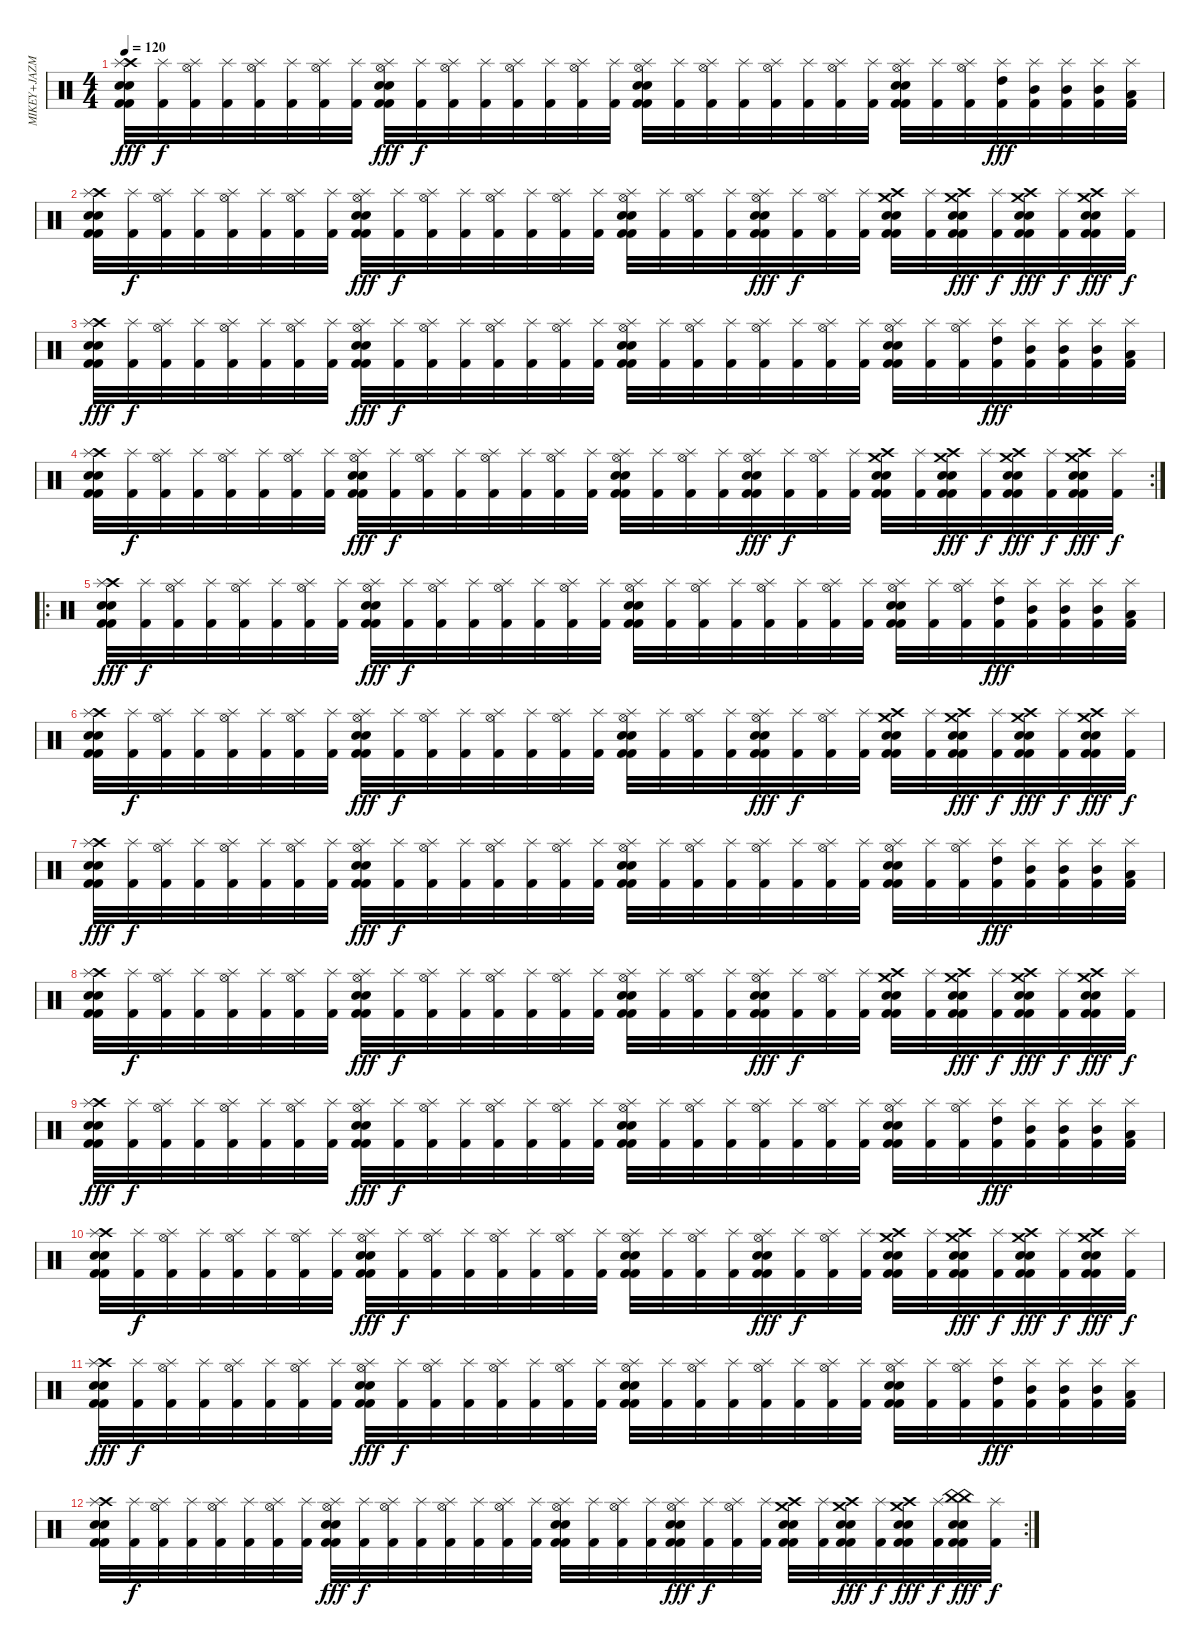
\track ("MIKEY+JAZMO" "MIKEY+JAZM") {instrument percussion}
\staff {score}
\articulation defaults
\ts (4 4)
\tempo 120
\clef neutral
\ks c
("Crash high (hit)" "Splash (hit)" "Electric Snare (hit)" "Electric Snare (hit)" "Kick (hit) 2" "Kick (hit) 2").32{dy fff} ("Splash (hit)" "Kick (hit) 2").32{dy f} ("Hi-Hat (open)" "Splash (hit)" "Kick (hit) 2").32 ("Splash (hit)" "Kick (hit) 2").32 ("Hi-Hat (open)" "Splash (hit)" "Kick (hit) 2").32 ("Splash (hit)" "Kick (hit) 2").32 ("Hi-Hat (open)" "Splash (hit)" "Kick (hit) 2").32 ("Splash (hit)" "Kick (hit) 2").32 ("Hi-Hat (open)" "Splash (hit)" "Electric Snare (hit)" "Electric Snare (hit)" "Kick (hit) 2" "Kick (hit) 2").32{dy fff} ("Splash (hit)" "Kick (hit) 2").32{dy f} ("Hi-Hat (open)" "Splash (hit)" "Kick (hit) 2").32 ("Splash (hit)" "Kick (hit) 2").32 ("Hi-Hat (open)" "Splash (hit)" "Kick (hit) 2").32 ("Splash (hit)" "Kick (hit) 2").32 ("Hi-Hat (open)" "Splash (hit)" "Kick (hit) 2").32 ("Splash (hit)" "Kick (hit) 2").32 ("Hi-Hat (open)" "Splash (hit)" "Electric Snare (hit)" "Electric Snare (hit)" "Kick (hit) 2" "Kick (hit) 2").32 ("Splash (hit)" "Kick (hit) 2").32 ("Hi-Hat (open)" "Splash (hit)" "Kick (hit) 2").32 ("Splash (hit)" "Kick (hit) 2").32 ("Hi-Hat (open)" "Splash (hit)" "Kick (hit) 2").32 ("Splash (hit)" "Kick (hit) 2").32 ("Hi-Hat (open)" "Splash (hit)" "Kick (hit) 2").32 ("Splash (hit)" "Kick (hit) 2").32 ("Hi-Hat (open)" "Splash (hit)" "Electric Snare (hit)" "Electric Snare (hit)" "Kick (hit) 2" "Kick (hit) 2").32 ("Splash (hit)" "Kick (hit) 2").32 ("Hi-Hat (open)" "Splash (hit)" "Kick (hit) 2").32 ("High Tom (hit)" "Splash (hit)" "Kick (hit) 2").32{dy fff} ("Mid Tom (hit)" "Splash (hit)" "Kick (hit) 2").32 ("Mid Tom (hit)" "Splash (hit)" "Kick (hit) 2").32 ("Mid Tom (hit)" "Splash (hit)" "Kick (hit) 2").32 ("Low Tom (hit)" "Splash (hit)" "Kick (hit) 2").32 |
("Crash high (hit)" "Splash (hit)" "Electric Snare (hit)" "Electric Snare (hit)" "Kick (hit) 2" "Kick (hit) 2").32 ("Splash (hit)" "Kick (hit) 2").32{dy f} ("Hi-Hat (open)" "Splash (hit)" "Kick (hit) 2").32 ("Splash (hit)" "Kick (hit) 2").32 ("Hi-Hat (open)" "Splash (hit)" "Kick (hit) 2").32 ("Splash (hit)" "Kick (hit) 2").32 ("Hi-Hat (open)" "Splash (hit)" "Kick (hit) 2").32 ("Splash (hit)" "Kick (hit) 2").32 ("Hi-Hat (open)" "Splash (hit)" "Electric Snare (hit)" "Electric Snare (hit)" "Kick (hit) 2" "Kick (hit) 2").32{dy fff} ("Splash (hit)" "Kick (hit) 2").32{dy f} ("Hi-Hat (open)" "Splash (hit)" "Kick (hit) 2").32 ("Splash (hit)" "Kick (hit) 2").32 ("Hi-Hat (open)" "Splash (hit)" "Kick (hit) 2").32 ("Splash (hit)" "Kick (hit) 2").32 ("Hi-Hat (open)" "Splash (hit)" "Kick (hit) 2").32 ("Splash (hit)" "Kick (hit) 2").32 ("Hi-Hat (open)" "Splash (hit)" "Electric Snare (hit)" "Electric Snare (hit)" "Kick (hit) 2" "Kick (hit) 2").32 ("Splash (hit)" "Kick (hit) 2").32 ("Hi-Hat (open)" "Splash (hit)" "Kick (hit) 2").32 ("Splash (hit)" "Kick (hit) 2").32 ("Hi-Hat (open)" "Splash (hit)" "Electric Snare (hit)" "Electric Snare (hit)" "Kick (hit) 2" "Kick (hit) 2").32{dy fff} ("Splash (hit)" "Kick (hit) 2").32{dy f} ("Hi-Hat (open)" "Splash (hit)" "Kick (hit) 2").32 ("Splash (hit)" "Kick (hit) 2").32 ("Crash medium (hit)" "Crash high (hit)" "Electric Snare (hit)" "Electric Snare (hit)" "Kick (hit) 2" "Kick (hit) 2").32 ("Splash (hit)" "Kick (hit) 2").32 ("Crash medium (hit)" "Crash high (hit)" "Electric Snare (hit)" "Electric Snare (hit)" "Kick (hit) 2" "Kick (hit) 2").32{dy fff} ("Splash (hit)" "Kick (hit) 2").32{dy f} ("Crash medium (hit)" "Crash high (hit)" "Electric Snare (hit)" "Electric Snare (hit)" "Kick (hit) 2" "Kick (hit) 2").32{dy fff} ("Splash (hit)" "Kick (hit) 2").32{dy f} ("Crash medium (hit)" "Crash high (hit)" "Electric Snare (hit)" "Electric Snare (hit)" "Kick (hit) 2" "Kick (hit) 2").32{dy fff} ("Splash (hit)" "Kick (hit) 2").32{dy f} |
("Crash high (hit)" "Splash (hit)" "Electric Snare (hit)" "Electric Snare (hit)" "Kick (hit) 2" "Kick (hit) 2").32{dy fff} ("Splash (hit)" "Kick (hit) 2").32{dy f} ("Hi-Hat (open)" "Splash (hit)" "Kick (hit) 2").32 ("Splash (hit)" "Kick (hit) 2").32 ("Hi-Hat (open)" "Splash (hit)" "Kick (hit) 2").32 ("Splash (hit)" "Kick (hit) 2").32 ("Hi-Hat (open)" "Splash (hit)" "Kick (hit) 2").32 ("Splash (hit)" "Kick (hit) 2").32 ("Hi-Hat (open)" "Splash (hit)" "Electric Snare (hit)" "Electric Snare (hit)" "Kick (hit) 2" "Kick (hit) 2").32{dy fff} ("Splash (hit)" "Kick (hit) 2").32{dy f} ("Hi-Hat (open)" "Splash (hit)" "Kick (hit) 2").32 ("Splash (hit)" "Kick (hit) 2").32 ("Hi-Hat (open)" "Splash (hit)" "Kick (hit) 2").32 ("Splash (hit)" "Kick (hit) 2").32 ("Hi-Hat (open)" "Splash (hit)" "Kick (hit) 2").32 ("Splash (hit)" "Kick (hit) 2").32 ("Hi-Hat (open)" "Splash (hit)" "Electric Snare (hit)" "Electric Snare (hit)" "Kick (hit) 2" "Kick (hit) 2").32 ("Splash (hit)" "Kick (hit) 2").32 ("Hi-Hat (open)" "Splash (hit)" "Kick (hit) 2").32 ("Splash (hit)" "Kick (hit) 2").32 ("Hi-Hat (open)" "Splash (hit)" "Kick (hit) 2").32 ("Splash (hit)" "Kick (hit) 2").32 ("Hi-Hat (open)" "Splash (hit)" "Kick (hit) 2").32 ("Splash (hit)" "Kick (hit) 2").32 ("Hi-Hat (open)" "Splash (hit)" "Electric Snare (hit)" "Electric Snare (hit)" "Kick (hit) 2" "Kick (hit) 2").32 ("Splash (hit)" "Kick (hit) 2").32 ("Hi-Hat (open)" "Splash (hit)" "Kick (hit) 2").32 ("High Tom (hit)" "Splash (hit)" "Kick (hit) 2").32{dy fff} ("Mid Tom (hit)" "Splash (hit)" "Kick (hit) 2").32 ("Mid Tom (hit)" "Splash (hit)" "Kick (hit) 2").32 ("Mid Tom (hit)" "Splash (hit)" "Kick (hit) 2").32 ("Low Tom (hit)" "Splash (hit)" "Kick (hit) 2").32 |
\rc 2
("Crash high (hit)" "Splash (hit)" "Electric Snare (hit)" "Electric Snare (hit)" "Kick (hit) 2" "Kick (hit) 2").32 ("Splash (hit)" "Kick (hit) 2").32{dy f} ("Hi-Hat (open)" "Splash (hit)" "Kick (hit) 2").32 ("Splash (hit)" "Kick (hit) 2").32 ("Hi-Hat (open)" "Splash (hit)" "Kick (hit) 2").32 ("Splash (hit)" "Kick (hit) 2").32 ("Hi-Hat (open)" "Splash (hit)" "Kick (hit) 2").32 ("Splash (hit)" "Kick (hit) 2").32 ("Hi-Hat (open)" "Splash (hit)" "Electric Snare (hit)" "Electric Snare (hit)" "Kick (hit) 2" "Kick (hit) 2").32{dy fff} ("Splash (hit)" "Kick (hit) 2").32{dy f} ("Hi-Hat (open)" "Splash (hit)" "Kick (hit) 2").32 ("Splash (hit)" "Kick (hit) 2").32 ("Hi-Hat (open)" "Splash (hit)" "Kick (hit) 2").32 ("Splash (hit)" "Kick (hit) 2").32 ("Hi-Hat (open)" "Splash (hit)" "Kick (hit) 2").32 ("Splash (hit)" "Kick (hit) 2").32 ("Hi-Hat (open)" "Splash (hit)" "Electric Snare (hit)" "Electric Snare (hit)" "Kick (hit) 2" "Kick (hit) 2").32 ("Splash (hit)" "Kick (hit) 2").32 ("Hi-Hat (open)" "Splash (hit)" "Kick (hit) 2").32 ("Splash (hit)" "Kick (hit) 2").32 ("Hi-Hat (open)" "Splash (hit)" "Electric Snare (hit)" "Electric Snare (hit)" "Kick (hit) 2" "Kick (hit) 2").32{dy fff} ("Splash (hit)" "Kick (hit) 2").32{dy f} ("Hi-Hat (open)" "Splash (hit)" "Kick (hit) 2").32 ("Splash (hit)" "Kick (hit) 2").32 ("Crash medium (hit)" "Crash high (hit)" "Electric Snare (hit)" "Electric Snare (hit)" "Kick (hit) 2" "Kick (hit) 2").32 ("Splash (hit)" "Kick (hit) 2").32 ("Crash medium (hit)" "Crash high (hit)" "Electric Snare (hit)" "Electric Snare (hit)" "Kick (hit) 2" "Kick (hit) 2").32{dy fff} ("Splash (hit)" "Kick (hit) 2").32{dy f} ("Crash medium (hit)" "Crash high (hit)" "Electric Snare (hit)" "Electric Snare (hit)" "Kick (hit) 2" "Kick (hit) 2").32{dy fff} ("Splash (hit)" "Kick (hit) 2").32{dy f} ("Crash medium (hit)" "Crash high (hit)" "Electric Snare (hit)" "Electric Snare (hit)" "Kick (hit) 2" "Kick (hit) 2").32{dy fff} ("Splash (hit)" "Kick (hit) 2").32{dy f} |
\ro
("Crash high (hit)" "Splash (hit)" "Electric Snare (hit)" "Electric Snare (hit)" "Kick (hit) 2" "Kick (hit) 2").32{dy fff} ("Splash (hit)" "Kick (hit) 2").32{dy f} ("Hi-Hat (open)" "Splash (hit)" "Kick (hit) 2").32 ("Splash (hit)" "Kick (hit) 2").32 ("Hi-Hat (open)" "Splash (hit)" "Kick (hit) 2").32 ("Splash (hit)" "Kick (hit) 2").32 ("Hi-Hat (open)" "Splash (hit)" "Kick (hit) 2").32 ("Splash (hit)" "Kick (hit) 2").32 ("Hi-Hat (open)" "Splash (hit)" "Electric Snare (hit)" "Electric Snare (hit)" "Kick (hit) 2" "Kick (hit) 2").32{dy fff} ("Splash (hit)" "Kick (hit) 2").32{dy f} ("Hi-Hat (open)" "Splash (hit)" "Kick (hit) 2").32 ("Splash (hit)" "Kick (hit) 2").32 ("Hi-Hat (open)" "Splash (hit)" "Kick (hit) 2").32 ("Splash (hit)" "Kick (hit) 2").32 ("Hi-Hat (open)" "Splash (hit)" "Kick (hit) 2").32 ("Splash (hit)" "Kick (hit) 2").32 ("Hi-Hat (open)" "Splash (hit)" "Electric Snare (hit)" "Electric Snare (hit)" "Kick (hit) 2" "Kick (hit) 2").32 ("Splash (hit)" "Kick (hit) 2").32 ("Hi-Hat (open)" "Splash (hit)" "Kick (hit) 2").32 ("Splash (hit)" "Kick (hit) 2").32 ("Hi-Hat (open)" "Splash (hit)" "Kick (hit) 2").32 ("Splash (hit)" "Kick (hit) 2").32 ("Hi-Hat (open)" "Splash (hit)" "Kick (hit) 2").32 ("Splash (hit)" "Kick (hit) 2").32 ("Hi-Hat (open)" "Splash (hit)" "Electric Snare (hit)" "Electric Snare (hit)" "Kick (hit) 2" "Kick (hit) 2").32 ("Splash (hit)" "Kick (hit) 2").32 ("Hi-Hat (open)" "Splash (hit)" "Kick (hit) 2").32 ("High Tom (hit)" "Splash (hit)" "Kick (hit) 2").32{dy fff} ("Mid Tom (hit)" "Splash (hit)" "Kick (hit) 2").32 ("Mid Tom (hit)" "Splash (hit)" "Kick (hit) 2").32 ("Mid Tom (hit)" "Splash (hit)" "Kick (hit) 2").32 ("Low Tom (hit)" "Splash (hit)" "Kick (hit) 2").32 |
("Crash high (hit)" "Splash (hit)" "Electric Snare (hit)" "Electric Snare (hit)" "Kick (hit) 2" "Kick (hit) 2").32 ("Splash (hit)" "Kick (hit) 2").32{dy f} ("Hi-Hat (open)" "Splash (hit)" "Kick (hit) 2").32 ("Splash (hit)" "Kick (hit) 2").32 ("Hi-Hat (open)" "Splash (hit)" "Kick (hit) 2").32 ("Splash (hit)" "Kick (hit) 2").32 ("Hi-Hat (open)" "Splash (hit)" "Kick (hit) 2").32 ("Splash (hit)" "Kick (hit) 2").32 ("Hi-Hat (open)" "Splash (hit)" "Electric Snare (hit)" "Electric Snare (hit)" "Kick (hit) 2" "Kick (hit) 2").32{dy fff} ("Splash (hit)" "Kick (hit) 2").32{dy f} ("Hi-Hat (open)" "Splash (hit)" "Kick (hit) 2").32 ("Splash (hit)" "Kick (hit) 2").32 ("Hi-Hat (open)" "Splash (hit)" "Kick (hit) 2").32 ("Splash (hit)" "Kick (hit) 2").32 ("Hi-Hat (open)" "Splash (hit)" "Kick (hit) 2").32 ("Splash (hit)" "Kick (hit) 2").32 ("Hi-Hat (open)" "Splash (hit)" "Electric Snare (hit)" "Electric Snare (hit)" "Kick (hit) 2" "Kick (hit) 2").32 ("Splash (hit)" "Kick (hit) 2").32 ("Hi-Hat (open)" "Splash (hit)" "Kick (hit) 2").32 ("Splash (hit)" "Kick (hit) 2").32 ("Hi-Hat (open)" "Splash (hit)" "Electric Snare (hit)" "Electric Snare (hit)" "Kick (hit) 2" "Kick (hit) 2").32{dy fff} ("Splash (hit)" "Kick (hit) 2").32{dy f} ("Hi-Hat (open)" "Splash (hit)" "Kick (hit) 2").32 ("Splash (hit)" "Kick (hit) 2").32 ("Crash medium (hit)" "Crash high (hit)" "Electric Snare (hit)" "Electric Snare (hit)" "Kick (hit) 2" "Kick (hit) 2").32 ("Splash (hit)" "Kick (hit) 2").32 ("Crash medium (hit)" "Crash high (hit)" "Electric Snare (hit)" "Electric Snare (hit)" "Kick (hit) 2" "Kick (hit) 2").32{dy fff} ("Splash (hit)" "Kick (hit) 2").32{dy f} ("Crash medium (hit)" "Crash high (hit)" "Electric Snare (hit)" "Electric Snare (hit)" "Kick (hit) 2" "Kick (hit) 2").32{dy fff} ("Splash (hit)" "Kick (hit) 2").32{dy f} ("Crash medium (hit)" "Crash high (hit)" "Electric Snare (hit)" "Electric Snare (hit)" "Kick (hit) 2" "Kick (hit) 2").32{dy fff} ("Splash (hit)" "Kick (hit) 2").32{dy f} |
("Crash high (hit)" "Splash (hit)" "Electric Snare (hit)" "Electric Snare (hit)" "Kick (hit) 2" "Kick (hit) 2").32{dy fff} ("Splash (hit)" "Kick (hit) 2").32{dy f} ("Hi-Hat (open)" "Splash (hit)" "Kick (hit) 2").32 ("Splash (hit)" "Kick (hit) 2").32 ("Hi-Hat (open)" "Splash (hit)" "Kick (hit) 2").32 ("Splash (hit)" "Kick (hit) 2").32 ("Hi-Hat (open)" "Splash (hit)" "Kick (hit) 2").32 ("Splash (hit)" "Kick (hit) 2").32 ("Hi-Hat (open)" "Splash (hit)" "Electric Snare (hit)" "Electric Snare (hit)" "Kick (hit) 2" "Kick (hit) 2").32{dy fff} ("Splash (hit)" "Kick (hit) 2").32{dy f} ("Hi-Hat (open)" "Splash (hit)" "Kick (hit) 2").32 ("Splash (hit)" "Kick (hit) 2").32 ("Hi-Hat (open)" "Splash (hit)" "Kick (hit) 2").32 ("Splash (hit)" "Kick (hit) 2").32 ("Hi-Hat (open)" "Splash (hit)" "Kick (hit) 2").32 ("Splash (hit)" "Kick (hit) 2").32 ("Hi-Hat (open)" "Splash (hit)" "Electric Snare (hit)" "Electric Snare (hit)" "Kick (hit) 2" "Kick (hit) 2").32 ("Splash (hit)" "Kick (hit) 2").32 ("Hi-Hat (open)" "Splash (hit)" "Kick (hit) 2").32 ("Splash (hit)" "Kick (hit) 2").32 ("Hi-Hat (open)" "Splash (hit)" "Kick (hit) 2").32 ("Splash (hit)" "Kick (hit) 2").32 ("Hi-Hat (open)" "Splash (hit)" "Kick (hit) 2").32 ("Splash (hit)" "Kick (hit) 2").32 ("Hi-Hat (open)" "Splash (hit)" "Electric Snare (hit)" "Electric Snare (hit)" "Kick (hit) 2" "Kick (hit) 2").32 ("Splash (hit)" "Kick (hit) 2").32 ("Hi-Hat (open)" "Splash (hit)" "Kick (hit) 2").32 ("High Tom (hit)" "Splash (hit)" "Kick (hit) 2").32{dy fff} ("Mid Tom (hit)" "Splash (hit)" "Kick (hit) 2").32 ("Mid Tom (hit)" "Splash (hit)" "Kick (hit) 2").32 ("Mid Tom (hit)" "Splash (hit)" "Kick (hit) 2").32 ("Low Tom (hit)" "Splash (hit)" "Kick (hit) 2").32 |
("Crash high (hit)" "Splash (hit)" "Electric Snare (hit)" "Electric Snare (hit)" "Kick (hit) 2" "Kick (hit) 2").32 ("Splash (hit)" "Kick (hit) 2").32{dy f} ("Hi-Hat (open)" "Splash (hit)" "Kick (hit) 2").32 ("Splash (hit)" "Kick (hit) 2").32 ("Hi-Hat (open)" "Splash (hit)" "Kick (hit) 2").32 ("Splash (hit)" "Kick (hit) 2").32 ("Hi-Hat (open)" "Splash (hit)" "Kick (hit) 2").32 ("Splash (hit)" "Kick (hit) 2").32 ("Hi-Hat (open)" "Splash (hit)" "Electric Snare (hit)" "Electric Snare (hit)" "Kick (hit) 2" "Kick (hit) 2").32{dy fff} ("Splash (hit)" "Kick (hit) 2").32{dy f} ("Hi-Hat (open)" "Splash (hit)" "Kick (hit) 2").32 ("Splash (hit)" "Kick (hit) 2").32 ("Hi-Hat (open)" "Splash (hit)" "Kick (hit) 2").32 ("Splash (hit)" "Kick (hit) 2").32 ("Hi-Hat (open)" "Splash (hit)" "Kick (hit) 2").32 ("Splash (hit)" "Kick (hit) 2").32 ("Hi-Hat (open)" "Splash (hit)" "Electric Snare (hit)" "Electric Snare (hit)" "Kick (hit) 2" "Kick (hit) 2").32 ("Splash (hit)" "Kick (hit) 2").32 ("Hi-Hat (open)" "Splash (hit)" "Kick (hit) 2").32 ("Splash (hit)" "Kick (hit) 2").32 ("Hi-Hat (open)" "Splash (hit)" "Electric Snare (hit)" "Electric Snare (hit)" "Kick (hit) 2" "Kick (hit) 2").32{dy fff} ("Splash (hit)" "Kick (hit) 2").32{dy f} ("Hi-Hat (open)" "Splash (hit)" "Kick (hit) 2").32 ("Splash (hit)" "Kick (hit) 2").32 ("Crash medium (hit)" "Crash high (hit)" "Electric Snare (hit)" "Electric Snare (hit)" "Kick (hit) 2" "Kick (hit) 2").32 ("Splash (hit)" "Kick (hit) 2").32 ("Crash medium (hit)" "Crash high (hit)" "Electric Snare (hit)" "Electric Snare (hit)" "Kick (hit) 2" "Kick (hit) 2").32{dy fff} ("Splash (hit)" "Kick (hit) 2").32{dy f} ("Crash medium (hit)" "Crash high (hit)" "Electric Snare (hit)" "Electric Snare (hit)" "Kick (hit) 2" "Kick (hit) 2").32{dy fff} ("Splash (hit)" "Kick (hit) 2").32{dy f} ("Crash medium (hit)" "Crash high (hit)" "Electric Snare (hit)" "Electric Snare (hit)" "Kick (hit) 2" "Kick (hit) 2").32{dy fff} ("Splash (hit)" "Kick (hit) 2").32{dy f} |
("Crash high (hit)" "Splash (hit)" "Electric Snare (hit)" "Electric Snare (hit)" "Kick (hit) 2" "Kick (hit) 2").32{dy fff} ("Splash (hit)" "Kick (hit) 2").32{dy f} ("Hi-Hat (open)" "Splash (hit)" "Kick (hit) 2").32 ("Splash (hit)" "Kick (hit) 2").32 ("Hi-Hat (open)" "Splash (hit)" "Kick (hit) 2").32 ("Splash (hit)" "Kick (hit) 2").32 ("Hi-Hat (open)" "Splash (hit)" "Kick (hit) 2").32 ("Splash (hit)" "Kick (hit) 2").32 ("Hi-Hat (open)" "Splash (hit)" "Electric Snare (hit)" "Electric Snare (hit)" "Kick (hit) 2" "Kick (hit) 2").32{dy fff} ("Splash (hit)" "Kick (hit) 2").32{dy f} ("Hi-Hat (open)" "Splash (hit)" "Kick (hit) 2").32 ("Splash (hit)" "Kick (hit) 2").32 ("Hi-Hat (open)" "Splash (hit)" "Kick (hit) 2").32 ("Splash (hit)" "Kick (hit) 2").32 ("Hi-Hat (open)" "Splash (hit)" "Kick (hit) 2").32 ("Splash (hit)" "Kick (hit) 2").32 ("Hi-Hat (open)" "Splash (hit)" "Electric Snare (hit)" "Electric Snare (hit)" "Kick (hit) 2" "Kick (hit) 2").32 ("Splash (hit)" "Kick (hit) 2").32 ("Hi-Hat (open)" "Splash (hit)" "Kick (hit) 2").32 ("Splash (hit)" "Kick (hit) 2").32 ("Hi-Hat (open)" "Splash (hit)" "Kick (hit) 2").32 ("Splash (hit)" "Kick (hit) 2").32 ("Hi-Hat (open)" "Splash (hit)" "Kick (hit) 2").32 ("Splash (hit)" "Kick (hit) 2").32 ("Hi-Hat (open)" "Splash (hit)" "Electric Snare (hit)" "Electric Snare (hit)" "Kick (hit) 2" "Kick (hit) 2").32 ("Splash (hit)" "Kick (hit) 2").32 ("Hi-Hat (open)" "Splash (hit)" "Kick (hit) 2").32 ("High Tom (hit)" "Splash (hit)" "Kick (hit) 2").32{dy fff} ("Mid Tom (hit)" "Splash (hit)" "Kick (hit) 2").32 ("Mid Tom (hit)" "Splash (hit)" "Kick (hit) 2").32 ("Mid Tom (hit)" "Splash (hit)" "Kick (hit) 2").32 ("Low Tom (hit)" "Splash (hit)" "Kick (hit) 2").32 |
("Crash high (hit)" "Splash (hit)" "Electric Snare (hit)" "Electric Snare (hit)" "Kick (hit) 2" "Kick (hit) 2").32 ("Splash (hit)" "Kick (hit) 2").32{dy f} ("Hi-Hat (open)" "Splash (hit)" "Kick (hit) 2").32 ("Splash (hit)" "Kick (hit) 2").32 ("Hi-Hat (open)" "Splash (hit)" "Kick (hit) 2").32 ("Splash (hit)" "Kick (hit) 2").32 ("Hi-Hat (open)" "Splash (hit)" "Kick (hit) 2").32 ("Splash (hit)" "Kick (hit) 2").32 ("Hi-Hat (open)" "Splash (hit)" "Electric Snare (hit)" "Electric Snare (hit)" "Kick (hit) 2" "Kick (hit) 2").32{dy fff} ("Splash (hit)" "Kick (hit) 2").32{dy f} ("Hi-Hat (open)" "Splash (hit)" "Kick (hit) 2").32 ("Splash (hit)" "Kick (hit) 2").32 ("Hi-Hat (open)" "Splash (hit)" "Kick (hit) 2").32 ("Splash (hit)" "Kick (hit) 2").32 ("Hi-Hat (open)" "Splash (hit)" "Kick (hit) 2").32 ("Splash (hit)" "Kick (hit) 2").32 ("Hi-Hat (open)" "Splash (hit)" "Electric Snare (hit)" "Electric Snare (hit)" "Kick (hit) 2" "Kick (hit) 2").32 ("Splash (hit)" "Kick (hit) 2").32 ("Hi-Hat (open)" "Splash (hit)" "Kick (hit) 2").32 ("Splash (hit)" "Kick (hit) 2").32 ("Hi-Hat (open)" "Splash (hit)" "Electric Snare (hit)" "Electric Snare (hit)" "Kick (hit) 2" "Kick (hit) 2").32{dy fff} ("Splash (hit)" "Kick (hit) 2").32{dy f} ("Hi-Hat (open)" "Splash (hit)" "Kick (hit) 2").32 ("Splash (hit)" "Kick (hit) 2").32 ("Crash medium (hit)" "Crash high (hit)" "Electric Snare (hit)" "Electric Snare (hit)" "Kick (hit) 2" "Kick (hit) 2").32 ("Splash (hit)" "Kick (hit) 2").32 ("Crash medium (hit)" "Crash high (hit)" "Electric Snare (hit)" "Electric Snare (hit)" "Kick (hit) 2" "Kick (hit) 2").32{dy fff} ("Splash (hit)" "Kick (hit) 2").32{dy f} ("Crash medium (hit)" "Crash high (hit)" "Electric Snare (hit)" "Electric Snare (hit)" "Kick (hit) 2" "Kick (hit) 2").32{dy fff} ("Splash (hit)" "Kick (hit) 2").32{dy f} ("Crash medium (hit)" "Crash high (hit)" "Electric Snare (hit)" "Electric Snare (hit)" "Kick (hit) 2" "Kick (hit) 2").32{dy fff} ("Splash (hit)" "Kick (hit) 2").32{dy f} |
("Crash high (hit)" "Splash (hit)" "Electric Snare (hit)" "Electric Snare (hit)" "Kick (hit) 2" "Kick (hit) 2").32{dy fff} ("Splash (hit)" "Kick (hit) 2").32{dy f} ("Hi-Hat (open)" "Splash (hit)" "Kick (hit) 2").32 ("Splash (hit)" "Kick (hit) 2").32 ("Hi-Hat (open)" "Splash (hit)" "Kick (hit) 2").32 ("Splash (hit)" "Kick (hit) 2").32 ("Hi-Hat (open)" "Splash (hit)" "Kick (hit) 2").32 ("Splash (hit)" "Kick (hit) 2").32 ("Hi-Hat (open)" "Splash (hit)" "Electric Snare (hit)" "Electric Snare (hit)" "Kick (hit) 2" "Kick (hit) 2").32{dy fff} ("Splash (hit)" "Kick (hit) 2").32{dy f} ("Hi-Hat (open)" "Splash (hit)" "Kick (hit) 2").32 ("Splash (hit)" "Kick (hit) 2").32 ("Hi-Hat (open)" "Splash (hit)" "Kick (hit) 2").32 ("Splash (hit)" "Kick (hit) 2").32 ("Hi-Hat (open)" "Splash (hit)" "Kick (hit) 2").32 ("Splash (hit)" "Kick (hit) 2").32 ("Hi-Hat (open)" "Splash (hit)" "Electric Snare (hit)" "Electric Snare (hit)" "Kick (hit) 2" "Kick (hit) 2").32 ("Splash (hit)" "Kick (hit) 2").32 ("Hi-Hat (open)" "Splash (hit)" "Kick (hit) 2").32 ("Splash (hit)" "Kick (hit) 2").32 ("Hi-Hat (open)" "Splash (hit)" "Kick (hit) 2").32 ("Splash (hit)" "Kick (hit) 2").32 ("Hi-Hat (open)" "Splash (hit)" "Kick (hit) 2").32 ("Splash (hit)" "Kick (hit) 2").32 ("Hi-Hat (open)" "Splash (hit)" "Electric Snare (hit)" "Electric Snare (hit)" "Kick (hit) 2" "Kick (hit) 2").32 ("Splash (hit)" "Kick (hit) 2").32 ("Hi-Hat (open)" "Splash (hit)" "Kick (hit) 2").32 ("High Tom (hit)" "Splash (hit)" "Kick (hit) 2").32{dy fff} ("Mid Tom (hit)" "Splash (hit)" "Kick (hit) 2").32 ("Mid Tom (hit)" "Splash (hit)" "Kick (hit) 2").32 ("Mid Tom (hit)" "Splash (hit)" "Kick (hit) 2").32 ("Low Tom (hit)" "Splash (hit)" "Kick (hit) 2").32 |
\rc 2
("Crash high (hit)" "Splash (hit)" "Electric Snare (hit)" "Electric Snare (hit)" "Kick (hit) 2" "Kick (hit) 2").32 ("Splash (hit)" "Kick (hit) 2").32{dy f} ("Hi-Hat (open)" "Splash (hit)" "Kick (hit) 2").32 ("Splash (hit)" "Kick (hit) 2").32 ("Hi-Hat (open)" "Splash (hit)" "Kick (hit) 2").32 ("Splash (hit)" "Kick (hit) 2").32 ("Hi-Hat (open)" "Splash (hit)" "Kick (hit) 2").32 ("Splash (hit)" "Kick (hit) 2").32 ("Hi-Hat (open)" "Splash (hit)" "Electric Snare (hit)" "Electric Snare (hit)" "Kick (hit) 2" "Kick (hit) 2").32{dy fff} ("Splash (hit)" "Kick (hit) 2").32{dy f} ("Hi-Hat (open)" "Splash (hit)" "Kick (hit) 2").32 ("Splash (hit)" "Kick (hit) 2").32 ("Hi-Hat (open)" "Splash (hit)" "Kick (hit) 2").32 ("Splash (hit)" "Kick (hit) 2").32 ("Hi-Hat (open)" "Splash (hit)" "Kick (hit) 2").32 ("Splash (hit)" "Kick (hit) 2").32 ("Hi-Hat (open)" "Splash (hit)" "Electric Snare (hit)" "Electric Snare (hit)" "Kick (hit) 2" "Kick (hit) 2").32 ("Splash (hit)" "Kick (hit) 2").32 ("Hi-Hat (open)" "Splash (hit)" "Kick (hit) 2").32 ("Splash (hit)" "Kick (hit) 2").32 ("Hi-Hat (open)" "Splash (hit)" "Electric Snare (hit)" "Electric Snare (hit)" "Kick (hit) 2" "Kick (hit) 2").32{dy fff} ("Splash (hit)" "Kick (hit) 2").32{dy f} ("Hi-Hat (open)" "Splash (hit)" "Kick (hit) 2").32 ("Splash (hit)" "Kick (hit) 2").32 ("Crash medium (hit)" "Crash high (hit)" "Electric Snare (hit)" "Electric Snare (hit)" "Kick (hit) 2" "Kick (hit) 2").32 ("Splash (hit)" "Kick (hit) 2").32 ("Crash medium (hit)" "Crash high (hit)" "Electric Snare (hit)" "Electric Snare (hit)" "Kick (hit) 2" "Kick (hit) 2").32{dy fff} ("Splash (hit)" "Kick (hit) 2").32{dy f} ("Crash medium (hit)" "Crash high (hit)" "Electric Snare (hit)" "Electric Snare (hit)" "Kick (hit) 2" "Kick (hit) 2").32{dy fff} ("Splash (hit)" "Kick (hit) 2").32{dy f} ("China (hit)" "China (hit)" "Electric Snare (hit)" "Electric Snare (hit)" "Kick (hit) 2" "Kick (hit) 2").32{dy fff} ("Splash (hit)" "Kick (hit) 2").32{dy f}
